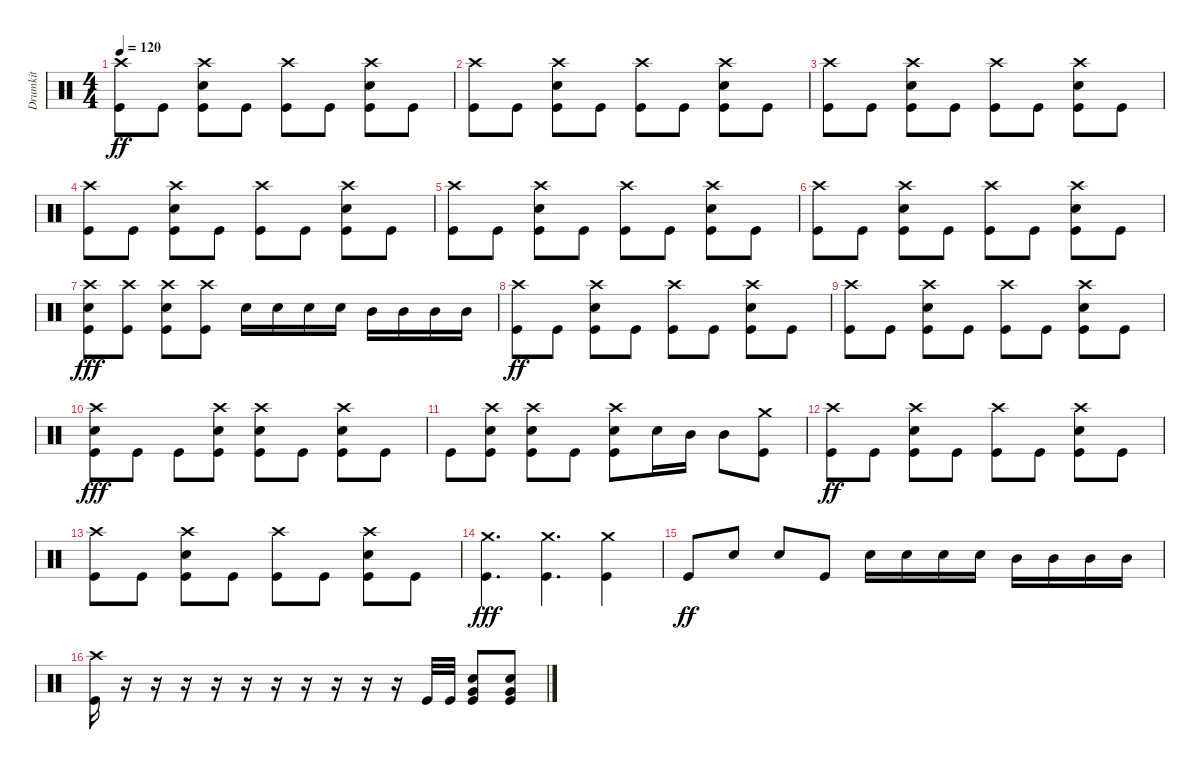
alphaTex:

\track ("Drumkit" "Drumkit") {instrument percussion}
\staff {score}
\articulation defaults
\ts (4 4)
\tempo 120
\clef neutral
\ks c
("Crash high (hit)" "Kick (hit)").8{dy ff} "Kick (hit)".8 ("Snare (hit) 2" "Kick (hit)" "Crash high (hit)").8 "Kick (hit)".8 ("Crash high (hit)" "Kick (hit)").8 "Kick (hit)".8 ("Snare (hit) 2" "Kick (hit)" "Crash high (hit)").8 "Kick (hit)".8 |
("Crash high (hit)" "Kick (hit)").8 "Kick (hit)".8 ("Snare (hit) 2" "Kick (hit)" "Crash high (hit)").8 "Kick (hit)".8 ("Crash high (hit)" "Kick (hit)").8 "Kick (hit)".8 ("Snare (hit) 2" "Kick (hit)" "Crash high (hit)").8 "Kick (hit)".8 |
("Crash high (hit)" "Kick (hit)").8 "Kick (hit)".8 ("Snare (hit) 2" "Kick (hit)" "Crash high (hit)").8 "Kick (hit)".8 ("Crash high (hit)" "Kick (hit)").8 "Kick (hit)".8 ("Snare (hit) 2" "Kick (hit)" "Crash high (hit)").8 "Kick (hit)".8 |
("Crash high (hit)" "Kick (hit)").8 "Kick (hit)".8 ("Snare (hit) 2" "Kick (hit)" "Crash high (hit)").8 "Kick (hit)".8 ("Crash high (hit)" "Kick (hit)").8 "Kick (hit)".8 ("Snare (hit) 2" "Kick (hit)" "Crash high (hit)").8 "Kick (hit)".8 |
("Crash high (hit)" "Kick (hit)").8 "Kick (hit)".8 ("Snare (hit) 2" "Kick (hit)" "Crash high (hit)").8 "Kick (hit)".8 ("Crash high (hit)" "Kick (hit)").8 "Kick (hit)".8 ("Snare (hit) 2" "Kick (hit)" "Crash high (hit)").8 "Kick (hit)".8 |
("Crash high (hit)" "Kick (hit)").8 "Kick (hit)".8 ("Snare (hit) 2" "Kick (hit)" "Crash high (hit)").8 "Kick (hit)".8 ("Crash high (hit)" "Kick (hit)").8 "Kick (hit)".8 ("Snare (hit) 2" "Kick (hit)" "Crash high (hit)").8 "Kick (hit)".8 |
("Snare (hit) 2" "Kick (hit)" "Crash high (hit)").8{dy fff} ("Crash high (hit)" "Kick (hit)").8 ("Snare (hit) 2" "Kick (hit)" "Crash high (hit)").8 ("Crash high (hit)" "Kick (hit)").8 "Snare (hit) 2".16 "Snare (hit) 2".16 "Snare (hit) 2".16 "Snare (hit) 2".16 "Mid Tom (hit)".16 "Mid Tom (hit)".16 "Mid Tom (hit)".16 "Mid Tom (hit)".16 |
("Crash high (hit)" "Kick (hit)").8{dy ff} "Kick (hit)".8 ("Snare (hit) 2" "Kick (hit)" "Crash high (hit)").8 "Kick (hit)".8 ("Crash high (hit)" "Kick (hit)").8 "Kick (hit)".8 ("Snare (hit) 2" "Kick (hit)" "Crash high (hit)").8 "Kick (hit)".8 |
("Crash high (hit)" "Kick (hit)").8 "Kick (hit)".8 ("Snare (hit) 2" "Kick (hit)" "Crash high (hit)").8 "Kick (hit)".8 ("Crash high (hit)" "Kick (hit)").8 "Kick (hit)".8 ("Snare (hit) 2" "Kick (hit)" "Crash high (hit)").8 "Kick (hit)".8 |
("Kick (hit)" "Crash high (hit)" "Snare (hit) 2").8{dy fff} "Kick (hit)".8 "Kick (hit)".8 ("Kick (hit)" "Crash high (hit)" "Snare (hit) 2").8 ("Kick (hit)" "Crash high (hit)" "Snare (hit) 2").8 "Kick (hit)".8 ("Kick (hit)" "Crash high (hit)" "Snare (hit) 2").8 "Kick (hit)".8 |
"Kick (hit)".8 ("Kick (hit)" "Crash high (hit)" "Snare (hit) 2").8 ("Kick (hit)" "Crash high (hit)" "Snare (hit) 2").8 "Kick (hit)".8 ("Kick (hit)" "Crash high (hit)" "Snare (hit) 2").8 "Snare (hit) 2".16 "Mid Tom (hit)".16 "Mid Tom (hit)".8 ("Kick (hit)" "Crash medium (hit)").8 |
("Crash high (hit)" "Kick (hit)").8{dy ff} "Kick (hit)".8 ("Snare (hit) 2" "Kick (hit)" "Crash high (hit)").8 "Kick (hit)".8 ("Crash high (hit)" "Kick (hit)").8 "Kick (hit)".8 ("Snare (hit) 2" "Kick (hit)" "Crash high (hit)").8 "Kick (hit)".8 |
("Crash high (hit)" "Kick (hit)").8 "Kick (hit)".8 ("Snare (hit) 2" "Kick (hit)" "Crash high (hit)").8 "Kick (hit)".8 ("Crash high (hit)" "Kick (hit)").8 "Kick (hit)".8 ("Snare (hit) 2" "Kick (hit)" "Crash high (hit)").8 "Kick (hit)".8 |
("Kick (hit)" "Crash medium (hit)").4{d dy fff} ("Kick (hit)" "Crash medium (hit)").4{d} ("Kick (hit)" "Crash medium (hit)").4 |
"Kick (hit)".8{dy ff} "Snare (hit) 2".8 "Snare (hit) 2".8 "Kick (hit)".8 "Snare (hit) 2".16 "Snare (hit) 2".16 "Snare (hit) 2".16 "Snare (hit) 2".16 "Mid Tom (hit)".16 "Mid Tom (hit)".16 "Mid Tom (hit)".16 "Mid Tom (hit)".16 |
("Kick (hit)" "Crash high (hit)").16 r.16 r.16 r.16 r.16 r.16 r.16 r.16 r.16 r.16 r.16 "Kick (hit)".32 "Kick (hit)".32 ("Kick (hit)" "Very Low Tom (hit)" "Snare (hit) 2").8 ("Kick (hit)" "Very Low Tom (hit)" "Snare (hit) 2").8
